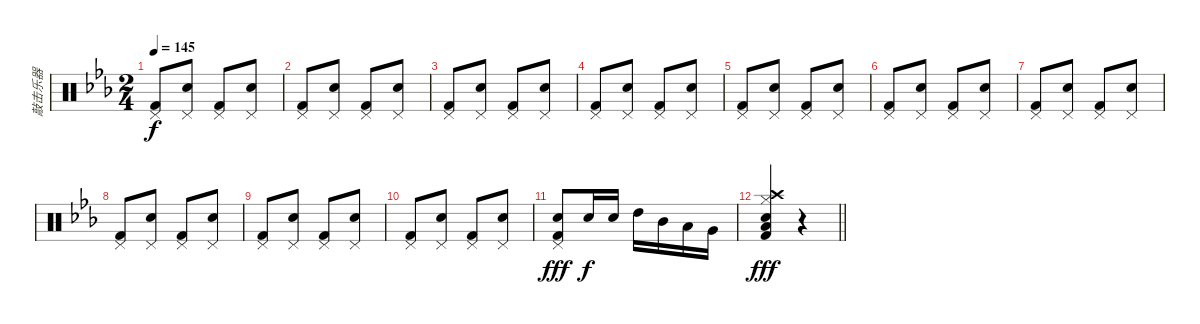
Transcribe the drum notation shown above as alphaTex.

\track ("敲击乐器" "敲击乐器") {instrument percussion}
\staff {score}
\articulation defaults
\ts (2 4)
\tempo 145
\clef neutral
\ks eb
("Pedal Hi-Hat (hit)" "Kick (hit) 2").8{dy f} ("Pedal Hi-Hat (hit)" "Snare (hit) 2").8 ("Pedal Hi-Hat (hit)" "Kick (hit) 2").8 ("Pedal Hi-Hat (hit)" "Snare (hit) 2").8 |
("Pedal Hi-Hat (hit)" "Kick (hit) 2").8 ("Pedal Hi-Hat (hit)" "Snare (hit) 2").8 ("Pedal Hi-Hat (hit)" "Kick (hit) 2").8 ("Pedal Hi-Hat (hit)" "Snare (hit) 2").8 |
("Pedal Hi-Hat (hit)" "Kick (hit) 2").8 ("Pedal Hi-Hat (hit)" "Snare (hit) 2").8 ("Pedal Hi-Hat (hit)" "Kick (hit) 2").8 ("Pedal Hi-Hat (hit)" "Snare (hit) 2").8 |
("Pedal Hi-Hat (hit)" "Kick (hit) 2").8 ("Pedal Hi-Hat (hit)" "Snare (hit) 2").8 ("Pedal Hi-Hat (hit)" "Kick (hit) 2").8 ("Pedal Hi-Hat (hit)" "Snare (hit) 2").8 |
("Pedal Hi-Hat (hit)" "Kick (hit) 2").8 ("Pedal Hi-Hat (hit)" "Snare (hit) 2").8 ("Pedal Hi-Hat (hit)" "Kick (hit) 2").8 ("Pedal Hi-Hat (hit)" "Snare (hit) 2").8 |
("Pedal Hi-Hat (hit)" "Kick (hit) 2").8 ("Pedal Hi-Hat (hit)" "Snare (hit) 2").8 ("Pedal Hi-Hat (hit)" "Kick (hit) 2").8 ("Pedal Hi-Hat (hit)" "Snare (hit) 2").8 |
("Pedal Hi-Hat (hit)" "Kick (hit) 2").8 ("Pedal Hi-Hat (hit)" "Snare (hit) 2").8 ("Pedal Hi-Hat (hit)" "Kick (hit) 2").8 ("Pedal Hi-Hat (hit)" "Snare (hit) 2").8 |
("Pedal Hi-Hat (hit)" "Kick (hit) 2").8 ("Pedal Hi-Hat (hit)" "Snare (hit) 2").8 ("Pedal Hi-Hat (hit)" "Kick (hit) 2").8 ("Pedal Hi-Hat (hit)" "Snare (hit) 2").8 |
("Pedal Hi-Hat (hit)" "Kick (hit) 2").8 ("Pedal Hi-Hat (hit)" "Snare (hit) 2").8 ("Pedal Hi-Hat (hit)" "Kick (hit) 2").8 ("Pedal Hi-Hat (hit)" "Snare (hit) 2").8 |
("Pedal Hi-Hat (hit)" "Kick (hit) 2").8 ("Pedal Hi-Hat (hit)" "Snare (hit) 2").8 ("Pedal Hi-Hat (hit)" "Kick (hit) 2").8 ("Pedal Hi-Hat (hit)" "Snare (hit) 2").8 |
("Pedal Hi-Hat (hit)" "Snare (hit) 2" "Kick (hit) 2").8{dy fff} "Snare (hit) 2".16{dy f} "Snare (hit) 2".16 "High Tom (hit)".16 "Mid Tom (hit)".16 "Low Tom (hit)".16 "Very Low Tom (hit)".16 |
\barLineRight lightlight
("Crash high (hit)" "Hi-Hat (closed)" "Snare (hit) 2" "Low Floor Tom (hit)" "Kick (hit) 2").4{dy fff} r.4
